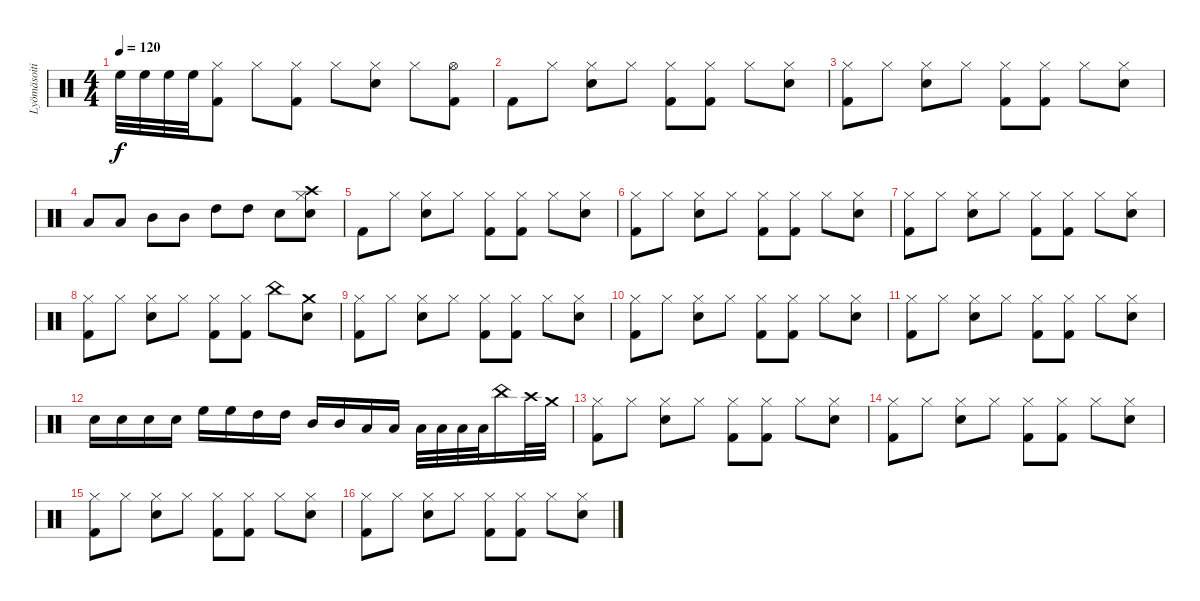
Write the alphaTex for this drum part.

\track ("Lyömäsoitin" "Lyömäsoiti") {instrument percussion}
\staff {score}
\articulation defaults
\ts (4 4)
\tempo 120
\clef neutral
\ks c "High Floor Tom (hit)".32{dy f} "High Floor Tom (hit)".32 "High Floor Tom (hit)".32 "High Floor Tom (hit)".32
("Hi-Hat (closed)" "Kick (hit) 2").8 "Hi-Hat (closed)".8 ("Hi-Hat (closed)" "Kick (hit) 2").8 "Hi-Hat (closed)".8 ("Hi-Hat (closed)" "Snare (hit) 2").8 "Hi-Hat (closed)".8 ("Hi-Hat (open)" "Kick (hit) 2").8 |
"Kick (hit) 2".8 "Hi-Hat (closed)".8 ("Hi-Hat (closed)" "Snare (hit) 2").8 "Hi-Hat (closed)".8 ("Hi-Hat (closed)" "Kick (hit) 2").8 ("Hi-Hat (closed)" "Kick (hit) 2").8 "Hi-Hat (closed)".8 ("Hi-Hat (closed)" "Snare (hit) 2").8 |
("Hi-Hat (closed)" "Kick (hit) 2").8 "Hi-Hat (closed)".8 ("Hi-Hat (closed)" "Snare (hit) 2").8 "Hi-Hat (closed)".8 ("Hi-Hat (closed)" "Kick (hit) 2").8 ("Hi-Hat (closed)" "Kick (hit) 2").8 "Hi-Hat (closed)".8 ("Hi-Hat (closed)" "Snare (hit) 2").8 |
"Low Tom (hit)".8 "Low Tom (hit)".8 "Mid Tom (hit)".8 "Mid Tom (hit)".8 "High Tom (hit)".8 "High Tom (hit)".8 "Snare (hit) 2".8 ("Crash high (hit)" "Snare (hit) 2" "Hi-Hat (closed)").8 |
"Kick (hit) 2".8 "Hi-Hat (closed)".8 ("Hi-Hat (closed)" "Snare (hit) 2").8 "Hi-Hat (closed)".8 ("Hi-Hat (closed)" "Kick (hit) 2").8 ("Hi-Hat (closed)" "Kick (hit) 2").8 "Hi-Hat (closed)".8 ("Hi-Hat (closed)" "Snare (hit) 2").8 |
("Hi-Hat (closed)" "Kick (hit) 2").8 "Hi-Hat (closed)".8 ("Hi-Hat (closed)" "Snare (hit) 2").8 "Hi-Hat (closed)".8 ("Hi-Hat (closed)" "Kick (hit) 2").8 ("Hi-Hat (closed)" "Kick (hit) 2").8 "Hi-Hat (closed)".8 ("Hi-Hat (closed)" "Snare (hit) 2").8 |
("Hi-Hat (closed)" "Kick (hit) 2").8 "Hi-Hat (closed)".8 ("Hi-Hat (closed)" "Snare (hit) 2").8 "Hi-Hat (closed)".8 ("Hi-Hat (closed)" "Kick (hit) 2").8 ("Hi-Hat (closed)" "Kick (hit) 2").8 "Hi-Hat (closed)".8 ("Hi-Hat (closed)" "Snare (hit) 2").8 |
("Hi-Hat (closed)" "Kick (hit) 2").8 "Hi-Hat (closed)".8 ("Hi-Hat (closed)" "Snare (hit) 2").8 "Hi-Hat (closed)".8 ("Hi-Hat (closed)" "Kick (hit) 2").8 ("Hi-Hat (closed)" "Kick (hit) 2").8 "China (hit)".8 ("Crash medium (hit)" "Snare (hit) 2").8 |
("Hi-Hat (closed)" "Kick (hit) 2").8 "Hi-Hat (closed)".8 ("Hi-Hat (closed)" "Snare (hit) 2").8 "Hi-Hat (closed)".8 ("Hi-Hat (closed)" "Kick (hit) 2").8 ("Hi-Hat (closed)" "Kick (hit) 2").8 "Hi-Hat (closed)".8 ("Hi-Hat (closed)" "Snare (hit) 2").8 |
("Hi-Hat (closed)" "Kick (hit) 2").8 "Hi-Hat (closed)".8 ("Hi-Hat (closed)" "Snare (hit) 2").8 "Hi-Hat (closed)".8 ("Hi-Hat (closed)" "Kick (hit) 2").8 ("Hi-Hat (closed)" "Kick (hit) 2").8 "Hi-Hat (closed)".8 ("Hi-Hat (closed)" "Snare (hit) 2").8 |
("Hi-Hat (closed)" "Kick (hit) 2").8 "Hi-Hat (closed)".8 ("Hi-Hat (closed)" "Snare (hit) 2").8 "Hi-Hat (closed)".8 ("Hi-Hat (closed)" "Kick (hit) 2").8 ("Hi-Hat (closed)" "Kick (hit) 2").8 "Hi-Hat (closed)".8 ("Hi-Hat (closed)" "Snare (hit) 2").8 |
"Snare (hit) 2".16 "Snare (hit) 2".16 "Snare (hit) 2".16 "Snare (hit) 2".16 "High Floor Tom (hit)".16 "High Floor Tom (hit)".16 "High Tom (hit)".16 "High Tom (hit)".16 "Mid Tom (hit)".16 "Mid Tom (hit)".16 "Low Tom (hit)".16 "Low Tom (hit)".16 "Low Tom (hit)".32 "Low Tom (hit)".32 "Low Tom (hit)".32 "Low Tom (hit)".32 "China (hit)".16 "Crash high (hit)".32 "Crash medium (hit)".32 |
("Hi-Hat (closed)" "Kick (hit) 2").8 "Hi-Hat (closed)".8 ("Hi-Hat (closed)" "Snare (hit) 2").8 "Hi-Hat (closed)".8 ("Hi-Hat (closed)" "Kick (hit) 2").8 ("Hi-Hat (closed)" "Kick (hit) 2").8 "Hi-Hat (closed)".8 ("Hi-Hat (closed)" "Snare (hit) 2").8 |
("Hi-Hat (closed)" "Kick (hit) 2").8 "Hi-Hat (closed)".8 ("Hi-Hat (closed)" "Snare (hit) 2").8 "Hi-Hat (closed)".8 ("Hi-Hat (closed)" "Kick (hit) 2").8 ("Hi-Hat (closed)" "Kick (hit) 2").8 "Hi-Hat (closed)".8 ("Hi-Hat (closed)" "Snare (hit) 2").8 |
("Hi-Hat (closed)" "Kick (hit) 2").8 "Hi-Hat (closed)".8 ("Hi-Hat (closed)" "Snare (hit) 2").8 "Hi-Hat (closed)".8 ("Hi-Hat (closed)" "Kick (hit) 2").8 ("Hi-Hat (closed)" "Kick (hit) 2").8 "Hi-Hat (closed)".8 ("Hi-Hat (closed)" "Snare (hit) 2").8 |
("Hi-Hat (closed)" "Kick (hit) 2").8 "Hi-Hat (closed)".8 ("Hi-Hat (closed)" "Snare (hit) 2").8 "Hi-Hat (closed)".8 ("Hi-Hat (closed)" "Kick (hit) 2").8 ("Hi-Hat (closed)" "Kick (hit) 2").8 "Hi-Hat (closed)".8 ("Hi-Hat (closed)" "Snare (hit) 2").8
